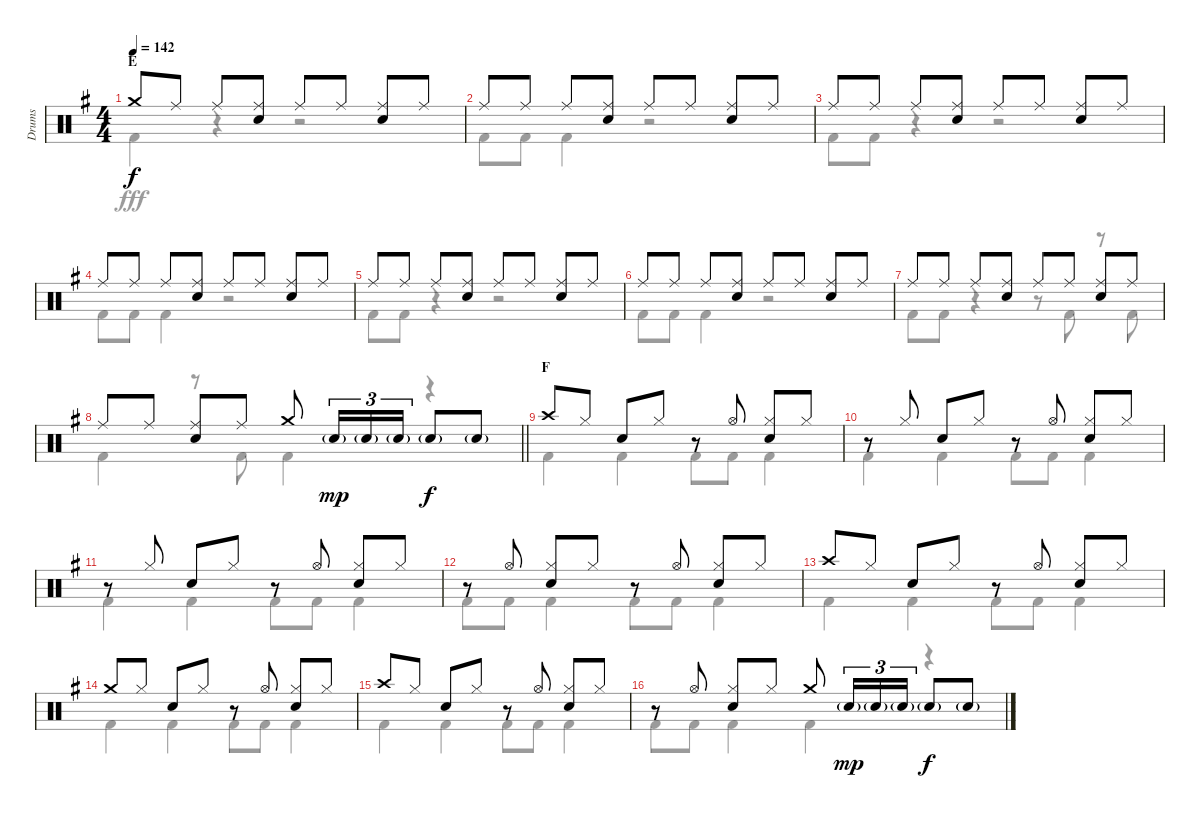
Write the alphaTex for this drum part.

\track ("Drums" "Drums") {instrument percussion}
\staff {score}
\articulation defaults
\voice
\ts (4 4)
\section ("" "E")
\tempo 142
\clef neutral
\ks g "Crash medium (hit)".8{dy f} "Ride (middle)".8 "Ride (middle)".8
("Ride (middle)" "Snare (hit) 2").8 "Ride (middle)".8 "Ride (middle)".8 ("Ride (middle)" "Snare (hit) 2").8 "Ride (middle)".8 |
"Ride (middle)".8 "Ride (middle)".8 "Ride (middle)".8 ("Ride (middle)" "Snare (hit) 2").8 "Ride (middle)".8 "Ride (middle)".8 ("Ride (middle)" "Snare (hit) 2").8 "Ride (middle)".8 |
"Ride (middle)".8 "Ride (middle)".8 "Ride (middle)".8 ("Ride (middle)" "Snare (hit) 2").8 "Ride (middle)".8 "Ride (middle)".8 ("Ride (middle)" "Snare (hit) 2").8 "Ride (middle)".8 |
"Ride (middle)".8 "Ride (middle)".8 "Ride (middle)".8 ("Ride (middle)" "Snare (hit) 2").8 "Ride (middle)".8 "Ride (middle)".8 ("Ride (middle)" "Snare (hit) 2").8 "Ride (middle)".8 |
"Ride (middle)".8 "Ride (middle)".8 "Ride (middle)".8 ("Ride (middle)" "Snare (hit) 2").8 "Ride (middle)".8 "Ride (middle)".8 ("Ride (middle)" "Snare (hit) 2").8 "Ride (middle)".8 |
"Ride (middle)".8 "Ride (middle)".8 "Ride (middle)".8 ("Ride (middle)" "Snare (hit) 2").8 "Ride (middle)".8 "Ride (middle)".8 ("Ride (middle)" "Snare (hit) 2").8 "Ride (middle)".8 |
"Ride (middle)".8 "Ride (middle)".8 "Ride (middle)".8 ("Ride (middle)" "Snare (hit) 2").8 "Ride (middle)".8 "Ride (middle)".8 ("Ride (middle)" "Snare (hit) 2").8 "Ride (middle)".8 |
\barLineRight lightlight "Ride (middle)".8 "Ride (middle)".8
("Ride (middle)" "Snare (hit) 2").8 "Ride (middle)".8 "Crash medium (hit)".8 "Snare (hit) 2"{g}.16{tu (3 2) dy mp} "Snare (hit) 2"{g}.16{tu (3 2)} "Snare (hit) 2"{g}.16{tu (3 2)} "Snare (hit) 2"{g}.8{dy f} "Snare (hit) 2"{g}.8 |
\section ("" "F")
"Crash high (hit)".8 "Hi-Hat (closed)".8 "Snare (hit) 2".8 "Hi-Hat (closed)".8 r.8 "Hi-Hat (open)".8 ("Hi-Hat (closed)" "Snare (hit) 2").8 "Hi-Hat (closed)".8 |
r.8 "Hi-Hat (closed)".8 "Snare (hit) 2".8 "Hi-Hat (closed)".8 r.8 "Hi-Hat (open)".8 ("Hi-Hat (closed)" "Snare (hit) 2").8 "Hi-Hat (closed)".8 |
r.8 "Hi-Hat (closed)".8 "Snare (hit) 2".8 "Hi-Hat (closed)".8 r.8 "Hi-Hat (open)".8 ("Hi-Hat (closed)" "Snare (hit) 2").8 "Hi-Hat (closed)".8 |
r.8 "Hi-Hat (open)".8 ("Hi-Hat (closed)" "Snare (hit) 2").8 "Hi-Hat (closed)".8 r.8 "Hi-Hat (open)".8 ("Hi-Hat (closed)" "Snare (hit) 2").8 "Hi-Hat (closed)".8 |
"Crash high (hit)".8 "Hi-Hat (closed)".8 "Snare (hit) 2".8 "Hi-Hat (closed)".8 r.8 "Hi-Hat (open)".8 ("Hi-Hat (closed)" "Snare (hit) 2").8 "Hi-Hat (closed)".8 |
"Crash medium (hit)".8 "Hi-Hat (closed)".8 "Snare (hit) 2".8 "Hi-Hat (closed)".8 r.8 "Hi-Hat (open)".8 ("Hi-Hat (closed)" "Snare (hit) 2").8 "Hi-Hat (closed)".8 |
"Crash high (hit)".8 "Hi-Hat (closed)".8 "Snare (hit) 2".8 "Hi-Hat (closed)".8 r.8 "Hi-Hat (open)".8 ("Hi-Hat (closed)" "Snare (hit) 2").8 "Hi-Hat (closed)".8 |
r.8 "Hi-Hat (open)".8 ("Hi-Hat (closed)" "Snare (hit) 2").8 "Hi-Hat (closed)".8 "Crash medium (hit)".8 "Snare (hit) 2"{g}.16{tu (3 2) dy mp} "Snare (hit) 2"{g}.16{tu (3 2)} "Snare (hit) 2"{g}.16{tu (3 2)} "Snare (hit) 2"{g}.8{dy f} "Snare (hit) 2"{g}.8
\voice
\clef neutral
\ottava regular
\simile none
\ks g "Kick (hit) 2".4{dy fff}
r.4 r.2 |
"Kick (hit) 2".8 "Kick (hit) 2".8 "Kick (hit) 2".4 r.2 |
"Kick (hit) 2".8 "Kick (hit) 2".8 r.4 r.2 |
"Kick (hit) 2".8 "Kick (hit) 2".8 "Kick (hit) 2".4 r.2 |
"Kick (hit) 2".8 "Kick (hit) 2".8 r.4 r.2 |
"Kick (hit) 2".8 "Kick (hit) 2".8 "Kick (hit) 2".4 r.2 |
"Kick (hit) 2".8 "Kick (hit) 2".8 r.4 r.8 "Kick (hit) 2".8 r.8 "Kick (hit) 2".8 |
\barLineRight lightlight "Kick (hit) 2".4
r.8 "Kick (hit) 2".8 "Kick (hit) 2".4 r.4 |
"Kick (hit) 2".4 "Kick (hit) 2".4 "Kick (hit) 2".8 "Kick (hit) 2".8 "Kick (hit) 2".4 |
"Kick (hit) 2".4 "Kick (hit) 2".4 "Kick (hit) 2".8 "Kick (hit) 2".8 "Kick (hit) 2".4 |
"Kick (hit) 2".4 "Kick (hit) 2".4 "Kick (hit) 2".8 "Kick (hit) 2".8 "Kick (hit) 2".4 |
"Kick (hit) 2".8 "Kick (hit) 2".8 "Kick (hit) 2".4 "Kick (hit) 2".8 "Kick (hit) 2".8 "Kick (hit) 2".4 |
"Kick (hit) 2".4 "Kick (hit) 2".4 "Kick (hit) 2".8 "Kick (hit) 2".8 "Kick (hit) 2".4 |
"Kick (hit) 2".4 "Kick (hit) 2".4 "Kick (hit) 2".8 "Kick (hit) 2".8 "Kick (hit) 2".4 |
"Kick (hit) 2".4 "Kick (hit) 2".4 "Kick (hit) 2".8 "Kick (hit) 2".8 "Kick (hit) 2".4 |
"Kick (hit) 2".8 "Kick (hit) 2".8 "Kick (hit) 2".4 "Kick (hit) 2".4 r.4
